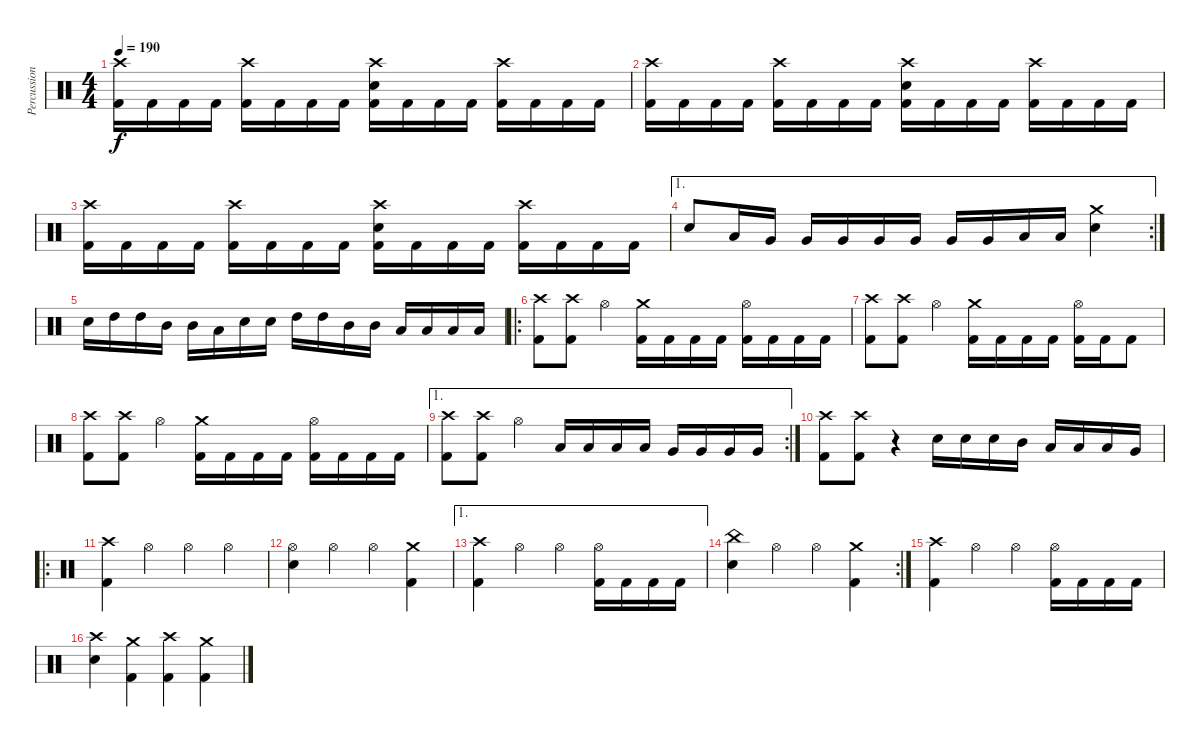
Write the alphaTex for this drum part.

\track ("Percussion" "Percussion") {instrument percussion}
\staff {score}
\articulation defaults
\ts (4 4)
\tempo 190
\clef neutral
\ks c
("Crash high (hit)" "Kick (hit) 2").16{dy f} "Kick (hit) 2".16 "Kick (hit) 2".16 "Kick (hit) 2".16 ("Crash high (hit)" "Kick (hit) 2").16 "Kick (hit) 2".16 "Kick (hit) 2".16 "Kick (hit) 2".16 ("Crash high (hit)" "Snare (hit) 2" "Kick (hit) 2").16 "Kick (hit) 2".16 "Kick (hit) 2".16 "Kick (hit) 2".16 ("Crash high (hit)" "Kick (hit) 2").16 "Kick (hit) 2".16 "Kick (hit) 2".16 "Kick (hit) 2".16 |
("Crash high (hit)" "Kick (hit) 2").16 "Kick (hit) 2".16 "Kick (hit) 2".16 "Kick (hit) 2".16 ("Crash high (hit)" "Kick (hit) 2").16 "Kick (hit) 2".16 "Kick (hit) 2".16 "Kick (hit) 2".16 ("Crash high (hit)" "Snare (hit) 2" "Kick (hit) 2").16 "Kick (hit) 2".16 "Kick (hit) 2".16 "Kick (hit) 2".16 ("Crash high (hit)" "Kick (hit) 2").16 "Kick (hit) 2".16 "Kick (hit) 2".16 "Kick (hit) 2".16 |
("Crash high (hit)" "Kick (hit) 2").16 "Kick (hit) 2".16 "Kick (hit) 2".16 "Kick (hit) 2".16 ("Crash high (hit)" "Kick (hit) 2").16 "Kick (hit) 2".16 "Kick (hit) 2".16 "Kick (hit) 2".16 ("Crash high (hit)" "Snare (hit) 2" "Kick (hit) 2").16 "Kick (hit) 2".16 "Kick (hit) 2".16 "Kick (hit) 2".16 ("Crash high (hit)" "Kick (hit) 2").16 "Kick (hit) 2".16 "Kick (hit) 2".16 "Kick (hit) 2".16 |
\ae 1
\rc 2 "Snare (hit) 2".8 "Low Tom (hit)".16 "Very Low Tom (hit)".16 "Very Low Tom (hit)".16 "Very Low Tom (hit)".16 "Very Low Tom (hit)".16 "Very Low Tom (hit)".16 "Very Low Tom (hit)".16 "Very Low Tom (hit)".16 "Low Tom (hit)".16 "Low Tom (hit)".16
("Crash medium (hit)" "Snare (hit) 2").4 |
"Snare (hit) 2".16 "High Tom (hit)".16 "High Tom (hit)".16 "Mid Tom (hit)".16 "Mid Tom (hit)".16 "Low Tom (hit)".16 "Snare (hit) 2".16 "Snare (hit) 2".16 "High Tom (hit)".16 "High Tom (hit)".16 "Mid Tom (hit)".16 "Mid Tom (hit)".16 "Low Tom (hit)".16 "Low Tom (hit)".16 "Low Tom (hit)".16 "Low Tom (hit)".16 |
\ro
("Crash high (hit)" "Kick (hit) 2").8 ("Crash high (hit)" "Kick (hit) 2").8 "Hi-Hat (open)".4 ("Crash medium (hit)" "Kick (hit) 2").16 "Kick (hit) 2".16 "Kick (hit) 2".16 "Kick (hit) 2".16 ("Hi-Hat (open)" "Kick (hit) 2").16 "Kick (hit) 2".16 "Kick (hit) 2".16 "Kick (hit) 2".16 |
("Crash high (hit)" "Kick (hit) 2").8 ("Crash high (hit)" "Kick (hit) 2").8 "Hi-Hat (open)".4 ("Crash medium (hit)" "Kick (hit) 2").16 "Kick (hit) 2".16 "Kick (hit) 2".16 "Kick (hit) 2".16 ("Hi-Hat (open)" "Kick (hit) 2").16 "Kick (hit) 2".16 "Kick (hit) 2".8 |
("Crash high (hit)" "Kick (hit) 2").8 ("Crash high (hit)" "Kick (hit) 2").8 "Hi-Hat (open)".4 ("Crash medium (hit)" "Kick (hit) 2").16 "Kick (hit) 2".16 "Kick (hit) 2".16 "Kick (hit) 2".16 ("Hi-Hat (open)" "Kick (hit) 2").16 "Kick (hit) 2".16 "Kick (hit) 2".16 "Kick (hit) 2".16 |
\ae 1
\rc 2
("Crash high (hit)" "Kick (hit) 2").8 ("Crash high (hit)" "Kick (hit) 2").8 "Hi-Hat (open)".4 "Low Tom (hit)".16 "Low Tom (hit)".16 "Low Tom (hit)".16 "Low Tom (hit)".16 "Very Low Tom (hit)".16 "Very Low Tom (hit)".16 "Very Low Tom (hit)".16 "Very Low Tom (hit)".16 |
("Crash high (hit)" "Kick (hit) 2").8 ("Crash high (hit)" "Kick (hit) 2").8 r.4 "Snare (hit) 2".16 "Snare (hit) 2".16 "Snare (hit) 2".16 "Mid Tom (hit)".16 "Low Tom (hit)".16 "Low Tom (hit)".16 "Low Tom (hit)".16 "Very Low Tom (hit)".16 |
\ro
("Crash high (hit)" "Kick (hit) 2").4 "Hi-Hat (open)".4 "Hi-Hat (open)".4 "Hi-Hat (open)".4 |
("Hi-Hat (open)" "Snare (hit) 2").4 "Hi-Hat (open)".4 "Hi-Hat (open)".4 ("Crash medium (hit)" "Kick (hit) 2").4 |
\ae 1
("Crash high (hit)" "Kick (hit) 2").4 "Hi-Hat (open)".4 "Hi-Hat (open)".4 ("Hi-Hat (open)" "Kick (hit) 2").16 "Kick (hit) 2".16 "Kick (hit) 2".16 "Kick (hit) 2".16 |
\rc 2
("China (hit)" "Snare (hit) 2").4 "Hi-Hat (open)".4 "Hi-Hat (open)".4 ("Crash medium (hit)" "Kick (hit) 2").4 |
("Crash high (hit)" "Kick (hit) 2").4 "Hi-Hat (open)".4 "Hi-Hat (open)".4 ("Hi-Hat (open)" "Kick (hit) 2").16 "Kick (hit) 2".16 "Kick (hit) 2".16 "Kick (hit) 2".16 |
("Crash high (hit)" "Snare (hit) 2").4 ("Crash medium (hit)" "Kick (hit) 2").4 ("Crash high (hit)" "Kick (hit) 2").4 ("Crash medium (hit)" "Kick (hit) 2").4
